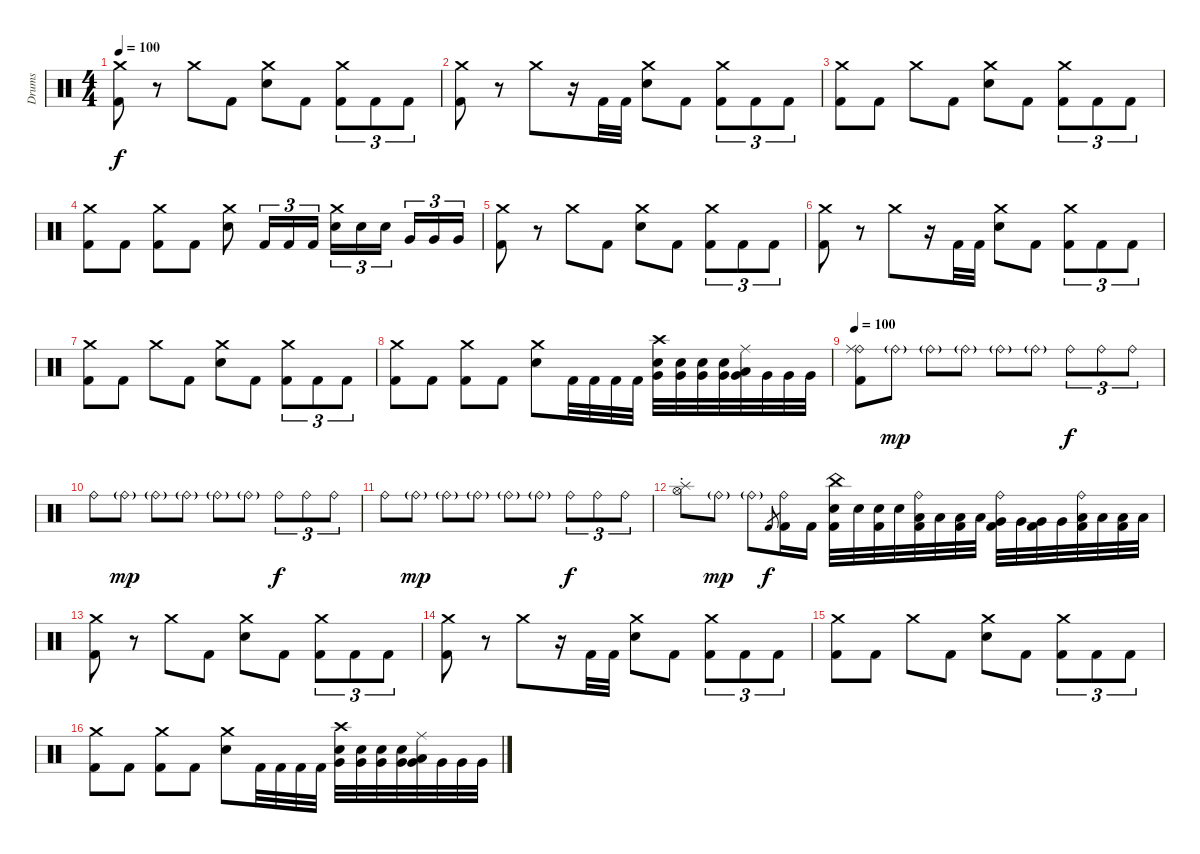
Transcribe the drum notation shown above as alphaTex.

\track ("Drums" "Drums") {instrument percussion}
\staff {score}
\articulation defaults
\ts (4 4)
\tempo 100
\clef neutral
\ks c
("Crash medium (hit)" "Kick (hit) 2").8{dy f} r.8 "Crash medium (hit)".8 "Kick (hit) 2".8 ("Crash medium (hit)" "Electric Snare (hit)").8 "Kick (hit) 2".8 ("Crash medium (hit)" "Kick (hit) 2").8{tu (3 2)} "Kick (hit) 2".8{tu (3 2)} "Kick (hit) 2".8{tu (3 2)} |
("Crash medium (hit)" "Kick (hit) 2").8 r.8 "Crash medium (hit)".8 r.16 "Kick (hit) 2".32 "Kick (hit) 2".32 ("Crash medium (hit)" "Electric Snare (hit)").8 "Kick (hit) 2".8 ("Crash medium (hit)" "Kick (hit) 2").8{tu (3 2)} "Kick (hit) 2".8{tu (3 2)} "Kick (hit) 2".8{tu (3 2)} |
("Crash medium (hit)" "Kick (hit) 2").8 "Kick (hit) 2".8 "Crash medium (hit)".8 "Kick (hit) 2".8 ("Crash medium (hit)" "Electric Snare (hit)").8 "Kick (hit) 2".8 ("Crash medium (hit)" "Kick (hit) 2").8{tu (3 2)} "Kick (hit) 2".8{tu (3 2)} "Kick (hit) 2".8{tu (3 2)} |
("Crash medium (hit)" "Kick (hit) 2").8 "Kick (hit) 2".8 ("Crash medium (hit)" "Kick (hit) 2").8 "Kick (hit) 2".8 ("Crash medium (hit)" "Electric Snare (hit)").8 "Kick (hit) 2".16{tu (3 2)} "Kick (hit) 2".16{tu (3 2)} "Kick (hit) 2".16{tu (3 2)} ("Crash medium (hit)" "Electric Snare (hit)").16{tu (3 2)} "Electric Snare (hit)".16{tu (3 2)} "Electric Snare (hit)".16{tu (3 2) beam splitsecondary} "Very Low Tom (hit)".16{tu (3 2)} "Very Low Tom (hit)".16{tu (3 2)} "Very Low Tom (hit)".16{tu (3 2)} |
("Crash medium (hit)" "Kick (hit) 2").8 r.8 "Crash medium (hit)".8 "Kick (hit) 2".8 ("Crash medium (hit)" "Electric Snare (hit)").8 "Kick (hit) 2".8 ("Crash medium (hit)" "Kick (hit) 2").8{tu (3 2)} "Kick (hit) 2".8{tu (3 2)} "Kick (hit) 2".8{tu (3 2)} |
("Crash medium (hit)" "Kick (hit) 2").8 r.8 "Crash medium (hit)".8 r.16 "Kick (hit) 2".32 "Kick (hit) 2".32 ("Crash medium (hit)" "Electric Snare (hit)").8 "Kick (hit) 2".8 ("Crash medium (hit)" "Kick (hit) 2").8{tu (3 2)} "Kick (hit) 2".8{tu (3 2)} "Kick (hit) 2".8{tu (3 2)} |
("Crash medium (hit)" "Kick (hit) 2").8 "Kick (hit) 2".8 "Crash medium (hit)".8 "Kick (hit) 2".8 ("Crash medium (hit)" "Electric Snare (hit)").8 "Kick (hit) 2".8 ("Crash medium (hit)" "Kick (hit) 2").8{tu (3 2)} "Kick (hit) 2".8{tu (3 2)} "Kick (hit) 2".8{tu (3 2)} |
("Crash medium (hit)" "Kick (hit) 2").8 "Kick (hit) 2".8 ("Crash medium (hit)" "Kick (hit) 2").8 "Kick (hit) 2".8 ("Crash medium (hit)" "Electric Snare (hit)").8 "Kick (hit) 2".32 "Kick (hit) 2".32 "Kick (hit) 2".32 "Kick (hit) 2".32 ("Crash high (hit)" "Electric Snare (hit)" "Very Low Tom (hit)").32 ("Electric Snare (hit)" "Very Low Tom (hit)").32 ("Electric Snare (hit)" "Very Low Tom (hit)").32 ("Electric Snare (hit)" "Very Low Tom (hit)").32 ("Ride (middle)" "Very Low Tom (hit)" "Low Floor Tom (hit)").32 "Very Low Tom (hit)".32 "Very Low Tom (hit)".32 "Very Low Tom (hit)".32 |
\tempo 100
("Ride (bell)" "Ride (middle)" "Kick (hit) 2").8 "Ride (bell)"{g}.8{dy mp} "Ride (bell)"{g}.8 "Ride (bell)"{g}.8 "Ride (bell)"{g}.8 "Ride (bell)"{g}.8 "Ride (bell)".8{tu (3 2) dy f} "Ride (bell)".8{tu (3 2)} "Ride (bell)".8{tu (3 2)} |
"Ride (bell)".8 "Ride (bell)"{g}.8{dy mp} "Ride (bell)"{g}.8 "Ride (bell)"{g}.8 "Ride (bell)"{g}.8 "Ride (bell)"{g}.8 "Ride (bell)".8{tu (3 2) dy f} "Ride (bell)".8{tu (3 2)} "Ride (bell)".8{tu (3 2)} |
"Ride (bell)".8 "Ride (bell)"{g}.8{dy mp} "Ride (bell)"{g}.8 "Ride (bell)"{g}.8 "Ride (bell)"{g}.8 "Ride (bell)"{g}.8 "Ride (bell)".8{tu (3 2) dy f} "Ride (bell)".8{tu (3 2)} "Ride (bell)".8{tu (3 2)} |
("Splash (hit)"{st} "Hi-Hat (open)").8 "Ride (bell)"{g}.8{dy mp} "Ride (bell)"{g}.8 "Kick (hit) 2".8{gr dy f} ("Ride (bell)" "Kick (hit) 2").16 "Kick (hit) 2".16 ("China (hit)" "Electric Snare (hit)" "Kick (hit) 2").32 "Electric Snare (hit)".32 ("Electric Snare (hit)" "Kick (hit) 2").32 "Electric Snare (hit)".32 ("Ride (bell)" "Low Tom (hit)" "Kick (hit) 2").32 "Low Tom (hit)".32 ("Low Tom (hit)" "Kick (hit) 2").32 "Low Tom (hit)".32 ("Ride (bell)" "Very Low Tom (hit)" "Kick (hit) 2").32 "Very Low Tom (hit)".32 ("Very Low Tom (hit)" "Kick (hit) 2").32 "Very Low Tom (hit)".32 ("Ride (bell)" "Low Floor Tom (hit)" "Kick (hit) 2").32 "Low Floor Tom (hit)".32 ("Low Floor Tom (hit)" "Kick (hit) 2").32 "Low Floor Tom (hit)".32 |
("Crash medium (hit)" "Kick (hit) 2").8 r.8 "Crash medium (hit)".8 "Kick (hit) 2".8 ("Crash medium (hit)" "Electric Snare (hit)").8 "Kick (hit) 2".8 ("Crash medium (hit)" "Kick (hit) 2").8{tu (3 2)} "Kick (hit) 2".8{tu (3 2)} "Kick (hit) 2".8{tu (3 2)} |
("Crash medium (hit)" "Kick (hit) 2").8 r.8 "Crash medium (hit)".8 r.16 "Kick (hit) 2".32 "Kick (hit) 2".32 ("Crash medium (hit)" "Electric Snare (hit)").8 "Kick (hit) 2".8 ("Crash medium (hit)" "Kick (hit) 2").8{tu (3 2)} "Kick (hit) 2".8{tu (3 2)} "Kick (hit) 2".8{tu (3 2)} |
("Crash medium (hit)" "Kick (hit) 2").8 "Kick (hit) 2".8 "Crash medium (hit)".8 "Kick (hit) 2".8 ("Crash medium (hit)" "Electric Snare (hit)").8 "Kick (hit) 2".8 ("Crash medium (hit)" "Kick (hit) 2").8{tu (3 2)} "Kick (hit) 2".8{tu (3 2)} "Kick (hit) 2".8{tu (3 2)} |
("Crash medium (hit)" "Kick (hit) 2").8 "Kick (hit) 2".8 ("Crash medium (hit)" "Kick (hit) 2").8 "Kick (hit) 2".8 ("Crash medium (hit)" "Electric Snare (hit)").8 "Kick (hit) 2".32 "Kick (hit) 2".32 "Kick (hit) 2".32 "Kick (hit) 2".32 ("Crash high (hit)" "Electric Snare (hit)" "Very Low Tom (hit)").32 ("Electric Snare (hit)" "Very Low Tom (hit)").32 ("Electric Snare (hit)" "Very Low Tom (hit)").32 ("Electric Snare (hit)" "Very Low Tom (hit)").32 ("Ride (middle)" "Very Low Tom (hit)" "Low Floor Tom (hit)").32 "Very Low Tom (hit)".32 "Very Low Tom (hit)".32 "Very Low Tom (hit)".32
